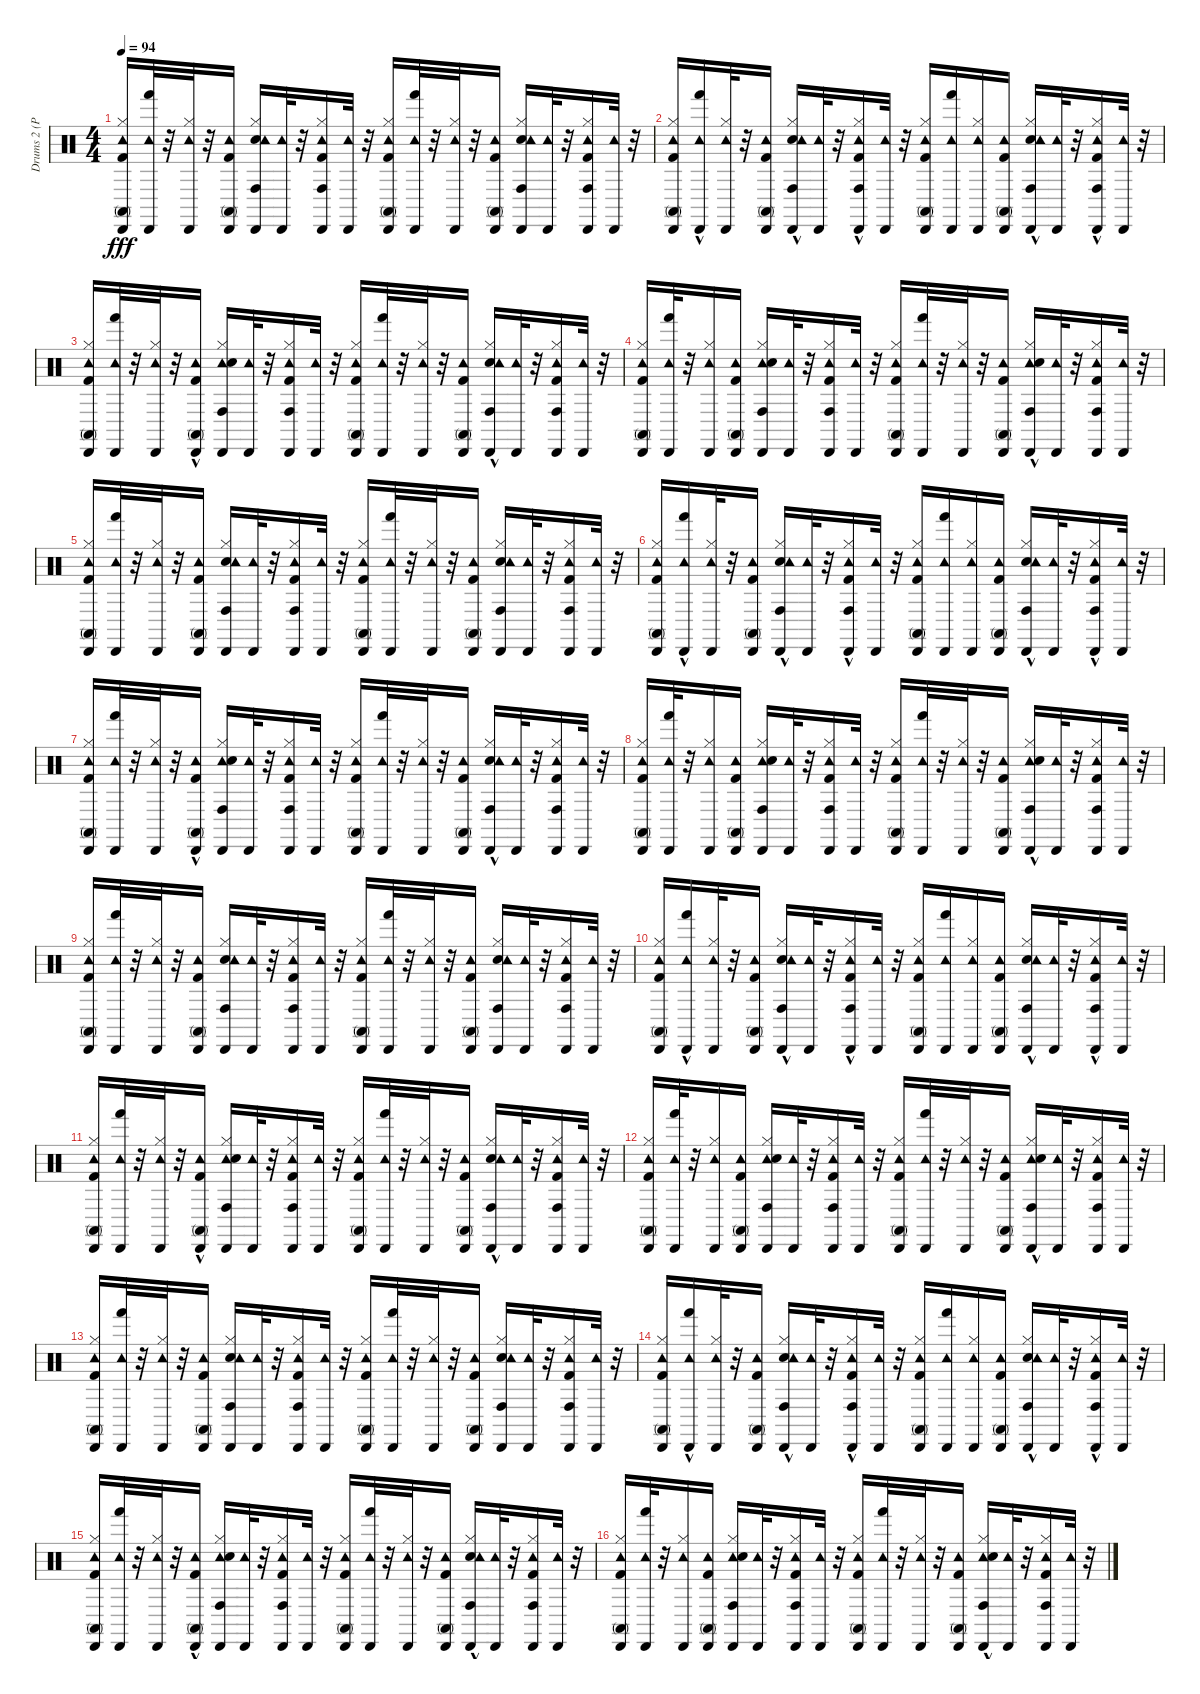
\track ("Drums 2 (Power)" "Drums 2 (P") {instrument percussion}
\staff {score}
\articulation defaults
\ts (4 4)
\tempo 94
\clef neutral
\ks c
("Kick (hit) 2" "Hi-Hat (closed)" "Conga high (mute)" "Cabasa (hit)" "Tambourine (hit)").16{dy fff} ("Tambourine (hit)" "Hand (hit)" "Cabasa (hit)").32 r.32 ("Tambourine (hit)" "Cabasa (hit)" "Hi-Hat (closed)").32 r.32 ("Tambourine (hit)" "Cabasa (hit)" "Kick (hit) 2" "Conga high (mute)").16 ("Cabasa (hit)" "Conga high (hit)" "Hi-Hat (closed)" "Snare (hit) 2" "Tambourine (hit)").16 ("Tambourine (hit)" "Cabasa (hit)").32 r.32 ("Tambourine (hit)" "Cabasa (hit)" "Hi-Hat (closed)" "Kick (hit) 2" "Conga high (hit)").16 ("Tambourine (hit)" "Cabasa (hit)").32 r.32 ("Cabasa (hit)" "Hi-Hat (closed)" "Kick (hit) 2" "Conga high (mute)" "Tambourine (hit)").16 ("Cabasa (hit)" "Hand (hit)" "Tambourine (hit)").32 r.32 ("Cabasa (hit)" "Hi-Hat (closed)" "Tambourine (hit)").32 r.32 ("Tambourine (hit)" "Cabasa (hit)" "Conga high (mute)" "Kick (hit) 2").16 ("Cabasa (hit)" "Conga high (hit)" "Hi-Hat (closed)" "Snare (hit) 2" "Tambourine (hit)").16 ("Cabasa (hit)" "Tambourine (hit)").32 r.32 ("Cabasa (hit)" "Kick (hit) 2" "Hi-Hat (closed)" "Conga high (hit)" "Tambourine (hit)").16 ("Tambourine (hit)" "Cabasa (hit)").32 r.32 |
("Hi-Hat (closed)" "Kick (hit) 2" "Cabasa (hit)" "Conga high (mute)" "Tambourine (hit)").16 ("Cabasa (hit)" "Hand (hit)"{hac} "Tambourine (hit)").16 ("Tambourine (hit)" "Cabasa (hit)" "Hi-Hat (closed)").32 r.32 ("Tambourine (hit)" "Cabasa (hit)" "Kick (hit) 2" "Conga high (mute)").16 ("Cabasa (hit)" "Hi-Hat (closed)" "Snare (hit) 2"{hac} "Conga high (hit)" "Tambourine (hit)").16 ("Tambourine (hit)" "Cabasa (hit)").32 r.32 ("Tambourine (hit)" "Cabasa (hit)" "Hi-Hat (closed)" "Kick (hit) 2"{hac} "Conga high (hit)").16 ("Tambourine (hit)" "Cabasa (hit)").32 r.32 ("Tambourine (hit)" "Conga high (mute)" "Cabasa (hit)" "Hi-Hat (closed)" "Kick (hit) 2").16 ("Tambourine (hit)" "Hand (hit)" "Cabasa (hit)").16 ("Hi-Hat (closed)" "Cabasa (hit)" "Tambourine (hit)").16 ("Conga high (mute)" "Cabasa (hit)" "Kick (hit) 2" "Tambourine (hit)").16 ("Cabasa (hit)" "Hi-Hat (closed)" "Snare (hit) 2"{hac} "Conga high (hit)" "Tambourine (hit)").16 ("Cabasa (hit)" "Tambourine (hit)").32 r.32 ("Cabasa (hit)" "Kick (hit) 2"{hac} "Hi-Hat (closed)" "Conga high (hit)" "Tambourine (hit)").16 ("Cabasa (hit)" "Tambourine (hit)").32 r.32 |
("Tambourine (hit)" "Conga high (mute)" "Kick (hit) 2" "Hi-Hat (closed)" "Cabasa (hit)").16 ("Tambourine (hit)" "Cabasa (hit)" "Hand (hit)").32 r.32 ("Tambourine (hit)" "Cabasa (hit)" "Hi-Hat (closed)").32 r.32 ("Tambourine (hit)" "Conga high (mute)"{hac} "Cabasa (hit)" "Kick (hit) 2").16 ("Tambourine (hit)" "Cabasa (hit)" "Hi-Hat (closed)" "Snare (hit) 2" "Conga high (hit)").16 ("Tambourine (hit)" "Cabasa (hit)").32 r.32 ("Hi-Hat (closed)" "Kick (hit) 2" "Cabasa (hit)" "Conga high (hit)" "Tambourine (hit)").16 ("Cabasa (hit)" "Tambourine (hit)").32 r.32 ("Cabasa (hit)" "Hi-Hat (closed)" "Kick (hit) 2" "Conga high (mute)" "Tambourine (hit)").16 ("Cabasa (hit)" "Hand (hit)" "Tambourine (hit)").32 r.32 ("Tambourine (hit)" "Cabasa (hit)" "Hi-Hat (closed)").32 r.32 ("Cabasa (hit)" "Kick (hit) 2" "Conga high (mute)" "Tambourine (hit)").16 ("Hi-Hat (closed)" "Snare (hit) 2"{hac} "Cabasa (hit)" "Conga high (hit)" "Tambourine (hit)").16 ("Tambourine (hit)" "Cabasa (hit)").32 r.32 ("Kick (hit) 2" "Hi-Hat (closed)" "Cabasa (hit)" "Conga high (hit)" "Tambourine (hit)").16 ("Cabasa (hit)" "Tambourine (hit)").32 r.32 |
("Kick (hit) 2" "Hi-Hat (closed)" "Conga high (mute)" "Cabasa (hit)" "Tambourine (hit)").16 ("Cabasa (hit)" "Hand (hit)" "Tambourine (hit)").32 r.32 ("Hi-Hat (closed)" "Cabasa (hit)" "Tambourine (hit)").16 ("Conga high (mute)" "Kick (hit) 2" "Cabasa (hit)" "Tambourine (hit)").16 ("Tambourine (hit)" "Hi-Hat (closed)" "Snare (hit) 2" "Cabasa (hit)" "Conga high (hit)").16 ("Cabasa (hit)" "Tambourine (hit)").32 r.32 ("Hi-Hat (closed)" "Kick (hit) 2" "Cabasa (hit)" "Conga high (hit)" "Tambourine (hit)").16 ("Cabasa (hit)" "Tambourine (hit)").32 r.32 ("Hi-Hat (closed)" "Kick (hit) 2" "Cabasa (hit)" "Conga high (mute)" "Tambourine (hit)").16 ("Tambourine (hit)" "Cabasa (hit)" "Hand (hit)").32 r.32 ("Tambourine (hit)" "Cabasa (hit)" "Hi-Hat (closed)").32 r.32 ("Conga high (mute)" "Cabasa (hit)" "Kick (hit) 2" "Tambourine (hit)").16 ("Tambourine (hit)" "Cabasa (hit)" "Hi-Hat (closed)" "Snare (hit) 2"{hac} "Conga high (hit)").16 ("Tambourine (hit)" "Cabasa (hit)").32 r.32 ("Tambourine (hit)" "Cabasa (hit)" "Hi-Hat (closed)" "Kick (hit) 2" "Conga high (hit)").16 ("Tambourine (hit)" "Cabasa (hit)").32 r.32 |
("Kick (hit) 2" "Hi-Hat (closed)" "Conga high (mute)" "Cabasa (hit)" "Tambourine (hit)").16 ("Tambourine (hit)" "Hand (hit)" "Cabasa (hit)").32 r.32 ("Tambourine (hit)" "Cabasa (hit)" "Hi-Hat (closed)").32 r.32 ("Tambourine (hit)" "Cabasa (hit)" "Kick (hit) 2" "Conga high (mute)").16 ("Cabasa (hit)" "Conga high (hit)" "Hi-Hat (closed)" "Snare (hit) 2" "Tambourine (hit)").16 ("Tambourine (hit)" "Cabasa (hit)").32 r.32 ("Tambourine (hit)" "Cabasa (hit)" "Hi-Hat (closed)" "Kick (hit) 2" "Conga high (hit)").16 ("Tambourine (hit)" "Cabasa (hit)").32 r.32 ("Cabasa (hit)" "Hi-Hat (closed)" "Kick (hit) 2" "Conga high (mute)" "Tambourine (hit)").16 ("Cabasa (hit)" "Hand (hit)" "Tambourine (hit)").32 r.32 ("Cabasa (hit)" "Hi-Hat (closed)" "Tambourine (hit)").32 r.32 ("Tambourine (hit)" "Cabasa (hit)" "Conga high (mute)" "Kick (hit) 2").16 ("Cabasa (hit)" "Conga high (hit)" "Hi-Hat (closed)" "Snare (hit) 2" "Tambourine (hit)").16 ("Cabasa (hit)" "Tambourine (hit)").32 r.32 ("Cabasa (hit)" "Kick (hit) 2" "Hi-Hat (closed)" "Conga high (hit)" "Tambourine (hit)").16 ("Tambourine (hit)" "Cabasa (hit)").32 r.32 |
("Hi-Hat (closed)" "Kick (hit) 2" "Cabasa (hit)" "Conga high (mute)" "Tambourine (hit)").16 ("Cabasa (hit)" "Hand (hit)"{hac} "Tambourine (hit)").16 ("Tambourine (hit)" "Cabasa (hit)" "Hi-Hat (closed)").32 r.32 ("Tambourine (hit)" "Cabasa (hit)" "Kick (hit) 2" "Conga high (mute)").16 ("Cabasa (hit)" "Hi-Hat (closed)" "Snare (hit) 2"{hac} "Conga high (hit)" "Tambourine (hit)").16 ("Tambourine (hit)" "Cabasa (hit)").32 r.32 ("Tambourine (hit)" "Cabasa (hit)" "Hi-Hat (closed)" "Kick (hit) 2"{hac} "Conga high (hit)").16 ("Tambourine (hit)" "Cabasa (hit)").32 r.32 ("Tambourine (hit)" "Conga high (mute)" "Cabasa (hit)" "Hi-Hat (closed)" "Kick (hit) 2").16 ("Tambourine (hit)" "Hand (hit)" "Cabasa (hit)").16 ("Hi-Hat (closed)" "Cabasa (hit)" "Tambourine (hit)").16 ("Conga high (mute)" "Cabasa (hit)" "Kick (hit) 2" "Tambourine (hit)").16 ("Cabasa (hit)" "Hi-Hat (closed)" "Snare (hit) 2"{hac} "Conga high (hit)" "Tambourine (hit)").16 ("Cabasa (hit)" "Tambourine (hit)").32 r.32 ("Cabasa (hit)" "Kick (hit) 2"{hac} "Hi-Hat (closed)" "Conga high (hit)" "Tambourine (hit)").16 ("Cabasa (hit)" "Tambourine (hit)").32 r.32 |
("Tambourine (hit)" "Conga high (mute)" "Kick (hit) 2" "Hi-Hat (closed)" "Cabasa (hit)").16 ("Tambourine (hit)" "Cabasa (hit)" "Hand (hit)").32 r.32 ("Tambourine (hit)" "Cabasa (hit)" "Hi-Hat (closed)").32 r.32 ("Tambourine (hit)" "Conga high (mute)"{hac} "Cabasa (hit)" "Kick (hit) 2").16 ("Tambourine (hit)" "Cabasa (hit)" "Hi-Hat (closed)" "Snare (hit) 2" "Conga high (hit)").16 ("Tambourine (hit)" "Cabasa (hit)").32 r.32 ("Hi-Hat (closed)" "Kick (hit) 2" "Cabasa (hit)" "Conga high (hit)" "Tambourine (hit)").16 ("Cabasa (hit)" "Tambourine (hit)").32 r.32 ("Cabasa (hit)" "Hi-Hat (closed)" "Kick (hit) 2" "Conga high (mute)" "Tambourine (hit)").16 ("Cabasa (hit)" "Hand (hit)" "Tambourine (hit)").32 r.32 ("Tambourine (hit)" "Cabasa (hit)" "Hi-Hat (closed)").32 r.32 ("Cabasa (hit)" "Kick (hit) 2" "Conga high (mute)" "Tambourine (hit)").16 ("Hi-Hat (closed)" "Snare (hit) 2"{hac} "Cabasa (hit)" "Conga high (hit)" "Tambourine (hit)").16 ("Tambourine (hit)" "Cabasa (hit)").32 r.32 ("Kick (hit) 2" "Hi-Hat (closed)" "Cabasa (hit)" "Conga high (hit)" "Tambourine (hit)").16 ("Cabasa (hit)" "Tambourine (hit)").32 r.32 |
("Kick (hit) 2" "Hi-Hat (closed)" "Conga high (mute)" "Cabasa (hit)" "Tambourine (hit)").16 ("Cabasa (hit)" "Hand (hit)" "Tambourine (hit)").32 r.32 ("Hi-Hat (closed)" "Cabasa (hit)" "Tambourine (hit)").16 ("Conga high (mute)" "Kick (hit) 2" "Cabasa (hit)" "Tambourine (hit)").16 ("Tambourine (hit)" "Hi-Hat (closed)" "Snare (hit) 2" "Cabasa (hit)" "Conga high (hit)").16 ("Cabasa (hit)" "Tambourine (hit)").32 r.32 ("Hi-Hat (closed)" "Kick (hit) 2" "Cabasa (hit)" "Conga high (hit)" "Tambourine (hit)").16 ("Cabasa (hit)" "Tambourine (hit)").32 r.32 ("Hi-Hat (closed)" "Kick (hit) 2" "Cabasa (hit)" "Conga high (mute)" "Tambourine (hit)").16 ("Tambourine (hit)" "Cabasa (hit)" "Hand (hit)").32 r.32 ("Tambourine (hit)" "Cabasa (hit)" "Hi-Hat (closed)").32 r.32 ("Conga high (mute)" "Cabasa (hit)" "Kick (hit) 2" "Tambourine (hit)").16 ("Tambourine (hit)" "Cabasa (hit)" "Hi-Hat (closed)" "Snare (hit) 2"{hac} "Conga high (hit)").16 ("Tambourine (hit)" "Cabasa (hit)").32 r.32 ("Tambourine (hit)" "Cabasa (hit)" "Hi-Hat (closed)" "Kick (hit) 2" "Conga high (hit)").16 ("Tambourine (hit)" "Cabasa (hit)").32 r.32 |
("Kick (hit) 2" "Hi-Hat (closed)" "Conga high (mute)" "Cabasa (hit)" "Tambourine (hit)").16 ("Tambourine (hit)" "Hand (hit)" "Cabasa (hit)").32 r.32 ("Tambourine (hit)" "Cabasa (hit)" "Hi-Hat (closed)").32 r.32 ("Tambourine (hit)" "Cabasa (hit)" "Kick (hit) 2" "Conga high (mute)").16 ("Cabasa (hit)" "Conga high (hit)" "Hi-Hat (closed)" "Snare (hit) 2" "Tambourine (hit)").16 ("Tambourine (hit)" "Cabasa (hit)").32 r.32 ("Tambourine (hit)" "Cabasa (hit)" "Hi-Hat (closed)" "Kick (hit) 2" "Conga high (hit)").16 ("Tambourine (hit)" "Cabasa (hit)").32 r.32 ("Cabasa (hit)" "Hi-Hat (closed)" "Kick (hit) 2" "Conga high (mute)" "Tambourine (hit)").16 ("Cabasa (hit)" "Hand (hit)" "Tambourine (hit)").32 r.32 ("Cabasa (hit)" "Hi-Hat (closed)" "Tambourine (hit)").32 r.32 ("Tambourine (hit)" "Cabasa (hit)" "Conga high (mute)" "Kick (hit) 2").16 ("Cabasa (hit)" "Conga high (hit)" "Hi-Hat (closed)" "Snare (hit) 2" "Tambourine (hit)").16 ("Cabasa (hit)" "Tambourine (hit)").32 r.32 ("Cabasa (hit)" "Kick (hit) 2" "Hi-Hat (closed)" "Conga high (hit)" "Tambourine (hit)").16 ("Tambourine (hit)" "Cabasa (hit)").32 r.32 |
("Hi-Hat (closed)" "Kick (hit) 2" "Cabasa (hit)" "Conga high (mute)" "Tambourine (hit)").16 ("Cabasa (hit)" "Hand (hit)"{hac} "Tambourine (hit)").16 ("Tambourine (hit)" "Cabasa (hit)" "Hi-Hat (closed)").32 r.32 ("Tambourine (hit)" "Cabasa (hit)" "Kick (hit) 2" "Conga high (mute)").16 ("Cabasa (hit)" "Hi-Hat (closed)" "Snare (hit) 2"{hac} "Conga high (hit)" "Tambourine (hit)").16 ("Tambourine (hit)" "Cabasa (hit)").32 r.32 ("Tambourine (hit)" "Cabasa (hit)" "Hi-Hat (closed)" "Kick (hit) 2"{hac} "Conga high (hit)").16 ("Tambourine (hit)" "Cabasa (hit)").32 r.32 ("Tambourine (hit)" "Conga high (mute)" "Cabasa (hit)" "Hi-Hat (closed)" "Kick (hit) 2").16 ("Tambourine (hit)" "Hand (hit)" "Cabasa (hit)").16 ("Hi-Hat (closed)" "Cabasa (hit)" "Tambourine (hit)").16 ("Conga high (mute)" "Cabasa (hit)" "Kick (hit) 2" "Tambourine (hit)").16 ("Cabasa (hit)" "Hi-Hat (closed)" "Snare (hit) 2"{hac} "Conga high (hit)" "Tambourine (hit)").16 ("Cabasa (hit)" "Tambourine (hit)").32 r.32 ("Cabasa (hit)" "Kick (hit) 2"{hac} "Hi-Hat (closed)" "Conga high (hit)" "Tambourine (hit)").16 ("Cabasa (hit)" "Tambourine (hit)").32 r.32 |
("Tambourine (hit)" "Conga high (mute)" "Kick (hit) 2" "Hi-Hat (closed)" "Cabasa (hit)").16 ("Tambourine (hit)" "Cabasa (hit)" "Hand (hit)").32 r.32 ("Tambourine (hit)" "Cabasa (hit)" "Hi-Hat (closed)").32 r.32 ("Tambourine (hit)" "Conga high (mute)"{hac} "Cabasa (hit)" "Kick (hit) 2").16 ("Tambourine (hit)" "Cabasa (hit)" "Hi-Hat (closed)" "Snare (hit) 2" "Conga high (hit)").16 ("Tambourine (hit)" "Cabasa (hit)").32 r.32 ("Hi-Hat (closed)" "Kick (hit) 2" "Cabasa (hit)" "Conga high (hit)" "Tambourine (hit)").16 ("Cabasa (hit)" "Tambourine (hit)").32 r.32 ("Cabasa (hit)" "Hi-Hat (closed)" "Kick (hit) 2" "Conga high (mute)" "Tambourine (hit)").16 ("Cabasa (hit)" "Hand (hit)" "Tambourine (hit)").32 r.32 ("Tambourine (hit)" "Cabasa (hit)" "Hi-Hat (closed)").32 r.32 ("Cabasa (hit)" "Kick (hit) 2" "Conga high (mute)" "Tambourine (hit)").16 ("Hi-Hat (closed)" "Snare (hit) 2"{hac} "Cabasa (hit)" "Conga high (hit)" "Tambourine (hit)").16 ("Tambourine (hit)" "Cabasa (hit)").32 r.32 ("Kick (hit) 2" "Hi-Hat (closed)" "Cabasa (hit)" "Conga high (hit)" "Tambourine (hit)").16 ("Cabasa (hit)" "Tambourine (hit)").32 r.32 |
("Kick (hit) 2" "Hi-Hat (closed)" "Conga high (mute)" "Cabasa (hit)" "Tambourine (hit)").16 ("Cabasa (hit)" "Hand (hit)" "Tambourine (hit)").32 r.32 ("Hi-Hat (closed)" "Cabasa (hit)" "Tambourine (hit)").16 ("Conga high (mute)" "Kick (hit) 2" "Cabasa (hit)" "Tambourine (hit)").16 ("Tambourine (hit)" "Hi-Hat (closed)" "Snare (hit) 2" "Cabasa (hit)" "Conga high (hit)").16 ("Cabasa (hit)" "Tambourine (hit)").32 r.32 ("Hi-Hat (closed)" "Kick (hit) 2" "Cabasa (hit)" "Conga high (hit)" "Tambourine (hit)").16 ("Cabasa (hit)" "Tambourine (hit)").32 r.32 ("Hi-Hat (closed)" "Kick (hit) 2" "Cabasa (hit)" "Conga high (mute)" "Tambourine (hit)").16 ("Tambourine (hit)" "Cabasa (hit)" "Hand (hit)").32 r.32 ("Tambourine (hit)" "Cabasa (hit)" "Hi-Hat (closed)").32 r.32 ("Conga high (mute)" "Cabasa (hit)" "Kick (hit) 2" "Tambourine (hit)").16 ("Tambourine (hit)" "Cabasa (hit)" "Hi-Hat (closed)" "Snare (hit) 2"{hac} "Conga high (hit)").16 ("Tambourine (hit)" "Cabasa (hit)").32 r.32 ("Tambourine (hit)" "Cabasa (hit)" "Hi-Hat (closed)" "Kick (hit) 2" "Conga high (hit)").16 ("Tambourine (hit)" "Cabasa (hit)").32 r.32 |
("Kick (hit) 2" "Hi-Hat (closed)" "Conga high (mute)" "Cabasa (hit)" "Tambourine (hit)").16 ("Tambourine (hit)" "Hand (hit)" "Cabasa (hit)").32 r.32 ("Tambourine (hit)" "Cabasa (hit)" "Hi-Hat (closed)").32 r.32 ("Tambourine (hit)" "Cabasa (hit)" "Kick (hit) 2" "Conga high (mute)").16 ("Cabasa (hit)" "Conga high (hit)" "Hi-Hat (closed)" "Snare (hit) 2" "Tambourine (hit)").16 ("Tambourine (hit)" "Cabasa (hit)").32 r.32 ("Tambourine (hit)" "Cabasa (hit)" "Hi-Hat (closed)" "Kick (hit) 2" "Conga high (hit)").16 ("Tambourine (hit)" "Cabasa (hit)").32 r.32 ("Cabasa (hit)" "Hi-Hat (closed)" "Kick (hit) 2" "Conga high (mute)" "Tambourine (hit)").16 ("Cabasa (hit)" "Hand (hit)" "Tambourine (hit)").32 r.32 ("Cabasa (hit)" "Hi-Hat (closed)" "Tambourine (hit)").32 r.32 ("Tambourine (hit)" "Cabasa (hit)" "Conga high (mute)" "Kick (hit) 2").16 ("Cabasa (hit)" "Conga high (hit)" "Hi-Hat (closed)" "Snare (hit) 2" "Tambourine (hit)").16 ("Cabasa (hit)" "Tambourine (hit)").32 r.32 ("Cabasa (hit)" "Kick (hit) 2" "Hi-Hat (closed)" "Conga high (hit)" "Tambourine (hit)").16 ("Tambourine (hit)" "Cabasa (hit)").32 r.32 |
("Hi-Hat (closed)" "Kick (hit) 2" "Cabasa (hit)" "Conga high (mute)" "Tambourine (hit)").16 ("Cabasa (hit)" "Hand (hit)"{hac} "Tambourine (hit)").16 ("Tambourine (hit)" "Cabasa (hit)" "Hi-Hat (closed)").32 r.32 ("Tambourine (hit)" "Cabasa (hit)" "Kick (hit) 2" "Conga high (mute)").16 ("Cabasa (hit)" "Hi-Hat (closed)" "Snare (hit) 2"{hac} "Conga high (hit)" "Tambourine (hit)").16 ("Tambourine (hit)" "Cabasa (hit)").32 r.32 ("Tambourine (hit)" "Cabasa (hit)" "Hi-Hat (closed)" "Kick (hit) 2"{hac} "Conga high (hit)").16 ("Tambourine (hit)" "Cabasa (hit)").32 r.32 ("Tambourine (hit)" "Conga high (mute)" "Cabasa (hit)" "Hi-Hat (closed)" "Kick (hit) 2").16 ("Tambourine (hit)" "Hand (hit)" "Cabasa (hit)").16 ("Hi-Hat (closed)" "Cabasa (hit)" "Tambourine (hit)").16 ("Conga high (mute)" "Cabasa (hit)" "Kick (hit) 2" "Tambourine (hit)").16 ("Cabasa (hit)" "Hi-Hat (closed)" "Snare (hit) 2"{hac} "Conga high (hit)" "Tambourine (hit)").16 ("Cabasa (hit)" "Tambourine (hit)").32 r.32 ("Cabasa (hit)" "Kick (hit) 2"{hac} "Hi-Hat (closed)" "Conga high (hit)" "Tambourine (hit)").16 ("Cabasa (hit)" "Tambourine (hit)").32 r.32 |
("Tambourine (hit)" "Conga high (mute)" "Kick (hit) 2" "Hi-Hat (closed)" "Cabasa (hit)").16 ("Tambourine (hit)" "Cabasa (hit)" "Hand (hit)").32 r.32 ("Tambourine (hit)" "Cabasa (hit)" "Hi-Hat (closed)").32 r.32 ("Tambourine (hit)" "Conga high (mute)"{hac} "Cabasa (hit)" "Kick (hit) 2").16 ("Tambourine (hit)" "Cabasa (hit)" "Hi-Hat (closed)" "Snare (hit) 2" "Conga high (hit)").16 ("Tambourine (hit)" "Cabasa (hit)").32 r.32 ("Hi-Hat (closed)" "Kick (hit) 2" "Cabasa (hit)" "Conga high (hit)" "Tambourine (hit)").16 ("Cabasa (hit)" "Tambourine (hit)").32 r.32 ("Cabasa (hit)" "Hi-Hat (closed)" "Kick (hit) 2" "Conga high (mute)" "Tambourine (hit)").16 ("Cabasa (hit)" "Hand (hit)" "Tambourine (hit)").32 r.32 ("Tambourine (hit)" "Cabasa (hit)" "Hi-Hat (closed)").32 r.32 ("Cabasa (hit)" "Kick (hit) 2" "Conga high (mute)" "Tambourine (hit)").16 ("Hi-Hat (closed)" "Snare (hit) 2"{hac} "Cabasa (hit)" "Conga high (hit)" "Tambourine (hit)").16 ("Tambourine (hit)" "Cabasa (hit)").32 r.32 ("Kick (hit) 2" "Hi-Hat (closed)" "Cabasa (hit)" "Conga high (hit)" "Tambourine (hit)").16 ("Cabasa (hit)" "Tambourine (hit)").32 r.32 |
("Kick (hit) 2" "Hi-Hat (closed)" "Conga high (mute)" "Cabasa (hit)" "Tambourine (hit)").16 ("Cabasa (hit)" "Hand (hit)" "Tambourine (hit)").32 r.32 ("Hi-Hat (closed)" "Cabasa (hit)" "Tambourine (hit)").16 ("Conga high (mute)" "Kick (hit) 2" "Cabasa (hit)" "Tambourine (hit)").16 ("Tambourine (hit)" "Hi-Hat (closed)" "Snare (hit) 2" "Cabasa (hit)" "Conga high (hit)").16 ("Cabasa (hit)" "Tambourine (hit)").32 r.32 ("Hi-Hat (closed)" "Kick (hit) 2" "Cabasa (hit)" "Conga high (hit)" "Tambourine (hit)").16 ("Cabasa (hit)" "Tambourine (hit)").32 r.32 ("Hi-Hat (closed)" "Kick (hit) 2" "Cabasa (hit)" "Conga high (mute)" "Tambourine (hit)").16 ("Tambourine (hit)" "Cabasa (hit)" "Hand (hit)").32 r.32 ("Tambourine (hit)" "Cabasa (hit)" "Hi-Hat (closed)").32 r.32 ("Conga high (mute)" "Cabasa (hit)" "Kick (hit) 2" "Tambourine (hit)").16 ("Tambourine (hit)" "Cabasa (hit)" "Hi-Hat (closed)" "Snare (hit) 2"{hac} "Conga high (hit)").16 ("Tambourine (hit)" "Cabasa (hit)").32 r.32 ("Tambourine (hit)" "Cabasa (hit)" "Hi-Hat (closed)" "Kick (hit) 2" "Conga high (hit)").16 ("Tambourine (hit)" "Cabasa (hit)").32 r.32
